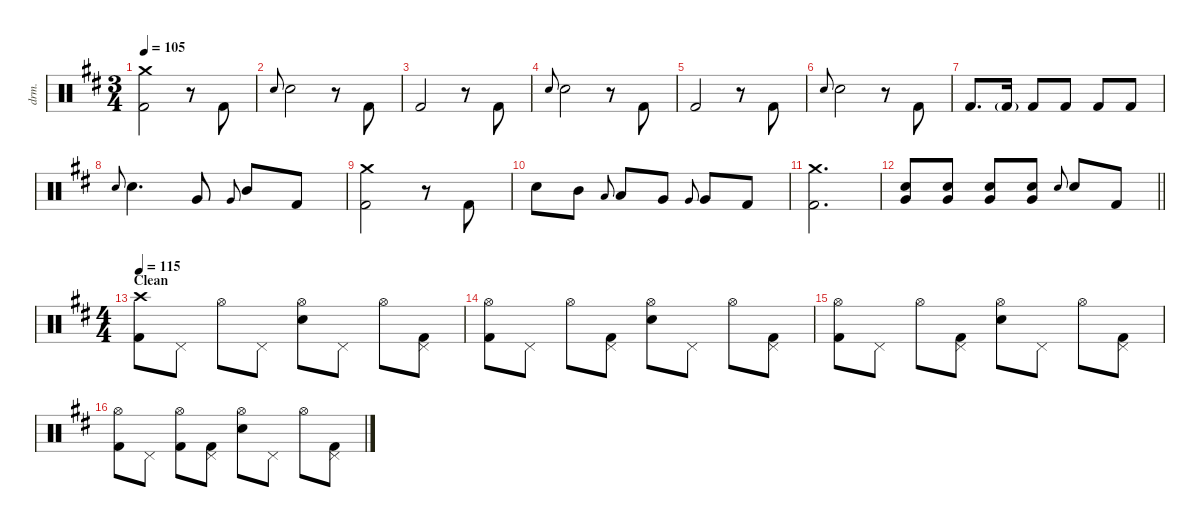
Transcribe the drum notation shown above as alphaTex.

\defaultSystemsLayout 4
\hideDynamics
\bracketExtendMode nobrackets
\track ("Atma Anur" "drm.") {solo instrument percussion}
\staff {score}
\articulation defaults
\ts (3 4)
\tempo 105
\clef neutral
\ks bminor
("Crash medium (hit)"{acc forcenatural} "Kick (hit) 2"{acc forcenatural}).2{dy fff beam Down} r.8{beam Down} "Kick (hit) 2"{acc forcenatural}.8{beam Up} |
"Electric Snare (hit)"{acc forcenatural}.8{gr onbeat dy ff beam Up} "Snare (hit) 2"{acc forcenatural}.2{dy fff beam Down} r.8{beam Down} "Kick (hit) 2"{acc forcenatural}.8{beam Up} |
"Kick (hit) 2"{acc forcenatural}.2{beam Up} r.8{beam Down} "Kick (hit) 2"{acc forcenatural}.8{beam Up} |
"Electric Snare (hit)"{acc forcenatural}.8{gr onbeat dy ff beam Up} "Snare (hit) 2"{acc forcenatural}.2{dy fff beam Down} r.8{beam Down} "Kick (hit) 2"{acc forcenatural}.8{beam Up} |
"Kick (hit) 2"{acc forcenatural}.2{beam Up} r.8{beam Down} "Kick (hit) 2"{acc forcenatural}.8{beam Up} |
"Electric Snare (hit)"{acc forcenatural}.8{gr onbeat dy ff beam Up} "Snare (hit) 2"{acc forcenatural}.2{dy fff beam Down} r.8{beam Down} "Kick (hit) 2"{acc forcenatural}.8{beam Up} |
"Kick (hit) 2"{acc forcenatural}.8{d beam Up} "Kick (hit) 2"{g acc forcenatural}.16{dy ff beam Up} "Kick (hit) 2"{acc forcenatural}.8{dy fff beam Up} "Kick (hit) 2"{acc forcenatural}.8{beam Up} "Kick (hit) 2"{acc forcenatural}.8{beam Up} "Kick (hit) 2"{acc forcenatural}.8{beam Up} |
"Electric Snare (hit)"{acc forcenatural}.8{gr onbeat dy ff beam Up} "Snare (hit) 2"{acc forcenatural}.4{d dy fff beam Down} "Very Low Tom (hit)"{acc forcenatural}.8{beam Up} "Very Low Tom (hit)"{acc forcenatural}.8{gr onbeat dy ff beam Up} "Mid Tom (hit)"{acc forcenatural}.8{dy fff beam Up} "Kick (hit) 2"{acc forcenatural}.8{beam Up} |
("Crash medium (hit)"{acc forcenatural} "Kick (hit) 2"{acc forcenatural}).2{beam Down} r.8{beam Down} "Kick (hit) 2"{acc forcenatural}.8{beam Up} |
"Snare (hit) 2"{acc forcenatural}.8{beam Down} "Mid Tom (hit)"{acc forcenatural}.8{beam Down} "Low Tom (hit)"{acc forcenatural}.8{gr onbeat dy ff beam Up} "Low Tom (hit)"{acc forcenatural}.8{dy fff beam Up} "Very Low Tom (hit)"{acc forcenatural}.8{beam Up} "Very Low Tom (hit)"{acc forcenatural}.8{gr onbeat dy ff beam Up} "Very Low Tom (hit)"{acc forcenatural}.8{dy fff beam Up} "Kick (hit) 2"{acc forcenatural}.8{beam Up} |
("Crash medium (hit)"{acc forcenatural} "Kick (hit) 2"{acc forcenatural}).2{d beam Down} |
\barLineRight lightlight
("Very Low Tom (hit)"{acc forcenatural} "Snare (hit) 2"{acc forcenatural}).8{dy pp beam Up} ("Very Low Tom (hit)"{acc forcenatural} "Snare (hit) 2"{acc forcenatural}).8{dy mp beam Up} ("Very Low Tom (hit)"{acc forcenatural} "Snare (hit) 2"{acc forcenatural}).8{dy f beam Up} ("Very Low Tom (hit)"{acc forcenatural} "Snare (hit) 2"{acc forcenatural}).8{dy fff beam Up} "Electric Snare (hit)"{acc forcenatural}.8{gr onbeat dy ff beam Up} "Snare (hit) 2"{acc forcenatural}.8{dy fff beam Up} "Kick (hit) 2"{acc forcenatural}.8{beam Up} |
\ts (4 4)
\beaming (8 2 2 2 2)
\section ("" "Clean")
\tempo 115
("Crash high (hit)"{acc forcenatural} "Kick (hit) 2"{acc forcenatural}).8{beam Down} "Pedal Hi-Hat (hit)"{acc forcenatural}.8{beam Down} "Hi-Hat (open)"{acc forcenatural}.8{beam Down} "Pedal Hi-Hat (hit)"{acc forcenatural}.8{beam Down} ("Hi-Hat (open)"{acc forcenatural} "Snare (hit) 2"{acc forcenatural}).8{beam Down} "Pedal Hi-Hat (hit)"{acc forcenatural}.8{beam Down} "Hi-Hat (open)"{acc forcenatural}.8{beam Down} ("Pedal Hi-Hat (hit)"{acc forcenatural} "Kick (hit) 2"{acc forcenatural}).8{beam Down} |
("Hi-Hat (open)"{acc forcenatural} "Kick (hit) 2"{acc forcenatural}).8{beam Down} "Pedal Hi-Hat (hit)"{acc forcenatural}.8{beam Down} "Hi-Hat (open)"{acc forcenatural}.8{beam Down} ("Pedal Hi-Hat (hit)"{acc forcenatural} "Kick (hit) 2"{acc forcenatural}).8{beam Down} ("Hi-Hat (open)"{acc forcenatural} "Snare (hit) 2"{acc forcenatural}).8{beam Down} "Pedal Hi-Hat (hit)"{acc forcenatural}.8{beam Down} "Hi-Hat (open)"{acc forcenatural}.8{beam Down} ("Pedal Hi-Hat (hit)"{acc forcenatural} "Kick (hit) 2"{acc forcenatural}).8{beam Down} |
("Hi-Hat (open)"{acc forcenatural} "Kick (hit) 2"{acc forcenatural}).8{beam Down} "Pedal Hi-Hat (hit)"{acc forcenatural}.8{beam Down} "Hi-Hat (open)"{acc forcenatural}.8{beam Down} ("Pedal Hi-Hat (hit)"{acc forcenatural} "Kick (hit) 2"{acc forcenatural}).8{beam Down} ("Hi-Hat (open)"{acc forcenatural} "Snare (hit) 2"{acc forcenatural}).8{beam Down} "Pedal Hi-Hat (hit)"{acc forcenatural}.8{beam Down} "Hi-Hat (open)"{acc forcenatural}.8{beam Down} ("Pedal Hi-Hat (hit)"{acc forcenatural} "Kick (hit) 2"{acc forcenatural}).8{beam Down} |
("Hi-Hat (open)"{acc forcenatural} "Kick (hit) 2"{acc forcenatural}).8{beam Down} "Pedal Hi-Hat (hit)"{acc forcenatural}.8{beam Down} ("Hi-Hat (open)"{acc forcenatural} "Kick (hit) 2"{acc forcenatural}).8{beam Down} ("Pedal Hi-Hat (hit)"{acc forcenatural} "Kick (hit) 2"{acc forcenatural}).8{beam Down} ("Hi-Hat (open)"{acc forcenatural} "Snare (hit) 2"{acc forcenatural}).8{beam Down} "Pedal Hi-Hat (hit)"{acc forcenatural}.8{beam Down} "Hi-Hat (open)"{acc forcenatural}.8{beam Down} ("Pedal Hi-Hat (hit)"{acc forcenatural} "Kick (hit) 2"{acc forcenatural}).8{beam Down}
